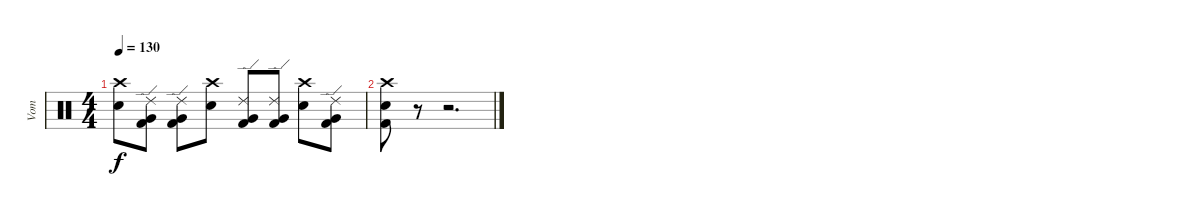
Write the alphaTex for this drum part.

\track ("Vom" "Vom") {instrument percussion}
\staff {score}
\articulation defaults
\ts (4 4)
\tempo 130
\clef neutral
\ks c
("Crash high (hit)" "Snare (hit) 2").8{dy f} ("Ride (edge) 2" "Very Low Tom (hit)" "Kick (hit) 2").8 ("Ride (edge) 2" "Very Low Tom (hit)" "Kick (hit) 2").8 ("Crash high (hit)" "Snare (hit) 2").8 ("Ride (edge) 2" "Very Low Tom (hit)" "Kick (hit) 2").8 ("Ride (edge) 2" "Very Low Tom (hit)" "Kick (hit) 2").8 ("Crash high (hit)" "Snare (hit) 2").8 ("Ride (edge) 2" "Very Low Tom (hit)" "Kick (hit) 2").8 |
("Crash high (hit)" "Snare (hit) 2" "Kick (hit) 2").8 r.8 r.2{d}
